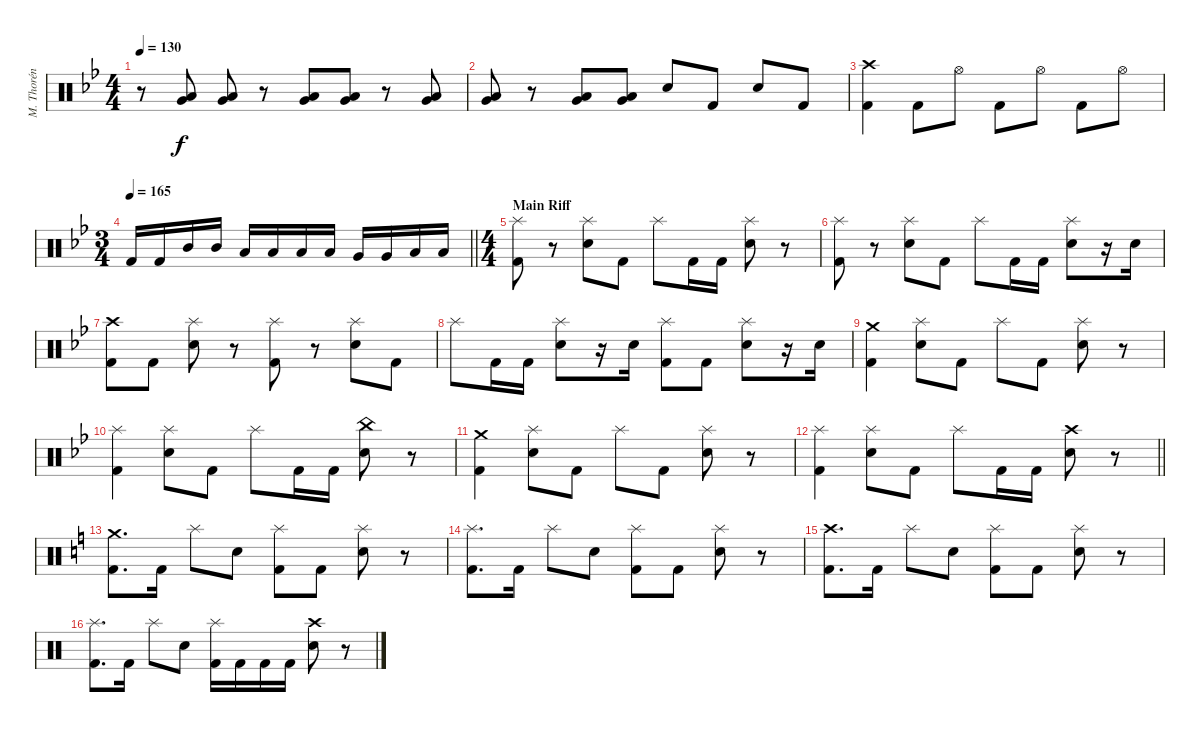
\track ("M. Thorén (Drums)" "M. Thorén ") {instrument percussion}
\staff {score}
\articulation defaults
\ts (4 4)
\tempo 130
\clef neutral
\ks gminor
r.8{dy f} ("Very Low Tom (hit)" "Low Floor Tom (hit)").8 ("Very Low Tom (hit)" "Low Floor Tom (hit)").8 r.8 ("Very Low Tom (hit)" "Low Floor Tom (hit)").8 ("Very Low Tom (hit)" "Low Floor Tom (hit)").8 r.8 ("Very Low Tom (hit)" "Low Floor Tom (hit)").8 |
("Very Low Tom (hit)" "Low Floor Tom (hit)").8 r.8 ("Very Low Tom (hit)" "Low Floor Tom (hit)").8 ("Very Low Tom (hit)" "Low Floor Tom (hit)").8 "Electric Snare (hit)".8 "Kick (hit) 2".8 "Electric Snare (hit)".8 "Kick (hit) 2".8 |
("Crash high (hit)" "Kick (hit) 2").4 "Kick (hit) 2".8 "Hi-Hat (open)".8 "Kick (hit) 2".8 "Hi-Hat (open)".8 "Kick (hit) 2".8 "Hi-Hat (open)".8 |
\ts (3 4)
\tempo 165
\barLineRight lightlight "Kick (hit) 2".16 "Kick (hit) 2".16 "Mid Tom (hit)".16 "Mid Tom (hit)".16 "Low Tom (hit)".16 "Low Tom (hit)".16 "Low Tom (hit)".16 "Low Tom (hit)".16 "Very Low Tom (hit)".16 "Very Low Tom (hit)".16 "Low Floor Tom (hit)".16 "Low Floor Tom (hit)".16
|
\ts (4 4)
\section ("" "Main Riff")
("Splash (hit)" "Kick (hit) 2").8 r.8 ("Splash (hit)" "Electric Snare (hit)").8 "Kick (hit) 2".8 "Splash (hit)".8 "Kick (hit) 2".16 "Kick (hit) 2".16 ("Splash (hit)" "Electric Snare (hit)").8 r.8 |
("Splash (hit)" "Kick (hit) 2").8 r.8 ("Splash (hit)" "Electric Snare (hit)").8 "Kick (hit) 2".8 "Splash (hit)".8 "Kick (hit) 2".16 "Kick (hit) 2".16 ("Splash (hit)" "Electric Snare (hit)").8 r.16 "Electric Snare (hit)".16 |
("Crash high (hit)" "Kick (hit) 2").8 "Kick (hit) 2".8 ("Splash (hit)" "Electric Snare (hit)").8 r.8 ("Splash (hit)" "Kick (hit) 2").8 r.8 ("Splash (hit)" "Electric Snare (hit)").8 "Kick (hit) 2".8 |
"Splash (hit)".8 "Kick (hit) 2".16 "Kick (hit) 2".16 ("Splash (hit)" "Electric Snare (hit)").8 r.16 "Electric Snare (hit)".16 ("Splash (hit)" "Kick (hit) 2").8 "Kick (hit) 2".8 ("Splash (hit)" "Electric Snare (hit)").8 r.16 "Electric Snare (hit)".16 |
("Crash medium (hit)" "Kick (hit) 2").4 ("Splash (hit)" "Electric Snare (hit)").8 "Kick (hit) 2".8 "Splash (hit)".8 "Kick (hit) 2".8 ("Splash (hit)" "Electric Snare (hit)").8 r.8 |
("Splash (hit)" "Kick (hit) 2").4 ("Splash (hit)" "Electric Snare (hit)").8 "Kick (hit) 2".8 "Splash (hit)".8 "Kick (hit) 2".16 "Kick (hit) 2".16 ("China (hit)" "Electric Snare (hit)").8 r.8 |
("Crash medium (hit)" "Kick (hit) 2").4 ("Splash (hit)" "Electric Snare (hit)").8 "Kick (hit) 2".8 "Splash (hit)".8 "Kick (hit) 2".8 ("Splash (hit)" "Electric Snare (hit)").8 r.8 |
\barLineRight lightlight
("Splash (hit)" "Kick (hit) 2").4 ("Splash (hit)" "Electric Snare (hit)").8 "Kick (hit) 2".8 "Splash (hit)".8 "Kick (hit) 2".16 "Kick (hit) 2".16 ("Crash high (hit)" "Electric Snare (hit)").8 r.8 |
\ks aminor
("Crash medium (hit)" "Kick (hit) 2").8{d} "Kick (hit) 2".16 "Splash (hit)".8 "Electric Snare (hit)".8 ("Splash (hit)" "Kick (hit) 2").8 "Kick (hit) 2".8 ("Splash (hit)" "Electric Snare (hit)").8 r.8 |
("Splash (hit)" "Kick (hit) 2").8{d} "Kick (hit) 2".16 "Splash (hit)".8 "Electric Snare (hit)".8 ("Splash (hit)" "Kick (hit) 2").8 "Kick (hit) 2".8 ("Splash (hit)" "Electric Snare (hit)").8 r.8 |
("Crash high (hit)" "Kick (hit) 2").8{d} "Kick (hit) 2".16 "Splash (hit)".8 "Electric Snare (hit)".8 ("Splash (hit)" "Kick (hit) 2").8 "Kick (hit) 2".8 ("Splash (hit)" "Electric Snare (hit)").8 r.8 |
("Splash (hit)" "Kick (hit) 2").8{d} "Kick (hit) 2".16 "Splash (hit)".8 "Electric Snare (hit)".8 ("Splash (hit)" "Kick (hit) 2").16 "Kick (hit) 2".16 "Kick (hit) 2".16 "Kick (hit) 2".16 ("Crash high (hit)" "Electric Snare (hit)").8 r.8
